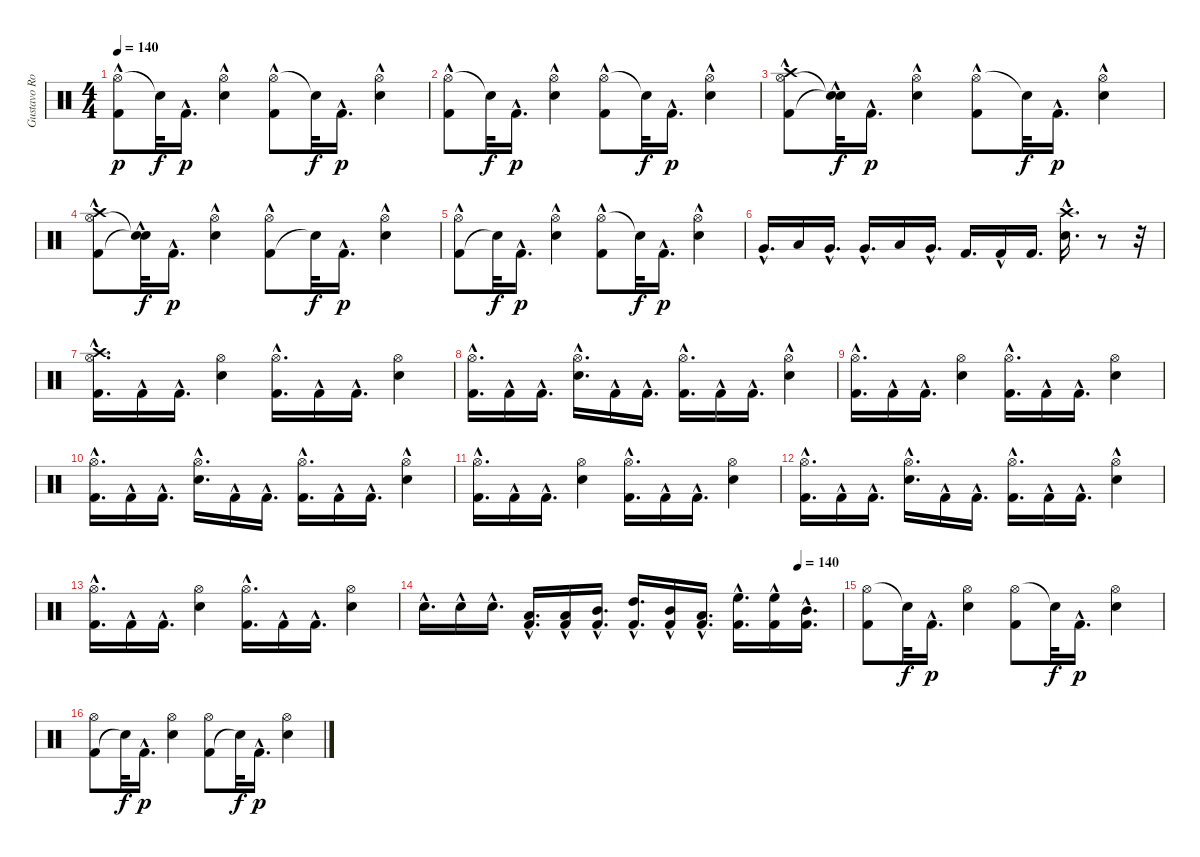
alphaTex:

\track ("Gustavo Rowek" "Gustavo Ro") {instrument percussion}
\staff {score}
\articulation defaults
\ts (4 4)
\tempo 140
\clef neutral
\ks c
("Hi-Hat (open)" "Kick (hit) 2"{hac}).8{dy p} "Snare (hit)"{t}.32{dy f} "Kick (hit) 2"{hac}.16{d dy p} ("Snare (hit) 2"{hac} "Hi-Hat (open)").4 ("Hi-Hat (open)" "Kick (hit) 2"{hac}).8 "Snare (hit)"{t}.32{dy f} "Kick (hit) 2"{hac}.16{d dy p} ("Snare (hit) 2"{hac} "Hi-Hat (open)").4 |
("Hi-Hat (open)" "Kick (hit) 2"{hac}).8 "Snare (hit)"{t}.32{dy f} "Kick (hit) 2"{hac}.16{d dy p} ("Snare (hit) 2"{hac} "Hi-Hat (open)").4 ("Hi-Hat (open)" "Kick (hit) 2"{hac}).8 "Snare (hit)"{t}.32{dy f} "Kick (hit) 2"{hac}.16{d dy p} ("Snare (hit) 2"{hac} "Hi-Hat (open)").4 |
("Hi-Hat (open)" "Kick (hit) 2"{hac} "Crash high (hit)").8 ("Snare (hit)"{t} "Snare (hit)"{hac t}).32{dy f} "Kick (hit) 2"{hac}.16{d dy p} ("Hi-Hat (open)" "Snare (hit) 2"{hac}).4 ("Hi-Hat (open)" "Kick (hit) 2"{hac}).8 "Snare (hit)"{t}.32{dy f} "Kick (hit) 2"{hac}.16{d dy p} ("Hi-Hat (open)" "Snare (hit) 2"{hac}).4 |
("Kick (hit) 2"{hac} "Hi-Hat (open)" "Crash high (hit)").8 ("Snare (hit)"{t} "Snare (hit)"{hac t}).32{dy f} "Kick (hit) 2"{hac}.16{d dy p} ("Hi-Hat (open)" "Snare (hit) 2"{hac}).4 ("Kick (hit) 2"{hac} "Hi-Hat (open)").8 "Snare (hit)"{t}.32{dy f} "Kick (hit) 2"{hac}.16{d dy p} ("Snare (hit) 2"{hac} "Hi-Hat (open)").4 |
("Kick (hit) 2"{hac} "Hi-Hat (open)").8 "Snare (hit)"{t}.32{dy f} "Kick (hit) 2"{hac}.16{d dy p} ("Snare (hit) 2"{hac} "Hi-Hat (open)").4 ("Hi-Hat (open)" "Kick (hit) 2"{hac}).8 "Snare (hit)"{t}.32{dy f} "Kick (hit) 2"{hac}.16{d dy p} ("Hi-Hat (open)" "Snare (hit) 2"{hac}).4 |
"Very Low Tom (hit)"{hac}.16{d} "Low Tom (hit)".16 "Very Low Tom (hit)"{hac}.16{d} "Very Low Tom (hit)"{hac}.16{d} "Low Tom (hit)".16 "Very Low Tom (hit)"{hac}.16{d} "Kick (hit) 2".16{d} "Kick (hit) 2"{hac}.16 "Kick (hit) 2".16{d} ("Crash high (hit)"{hac} "Snare (hit) 2"{hac}).16{d} r.8 r.32 |
("Hi-Hat (open)" "Crash high (hit)" "Kick (hit) 2"{hac}).16{d} "Kick (hit) 2"{hac}.16 "Kick (hit) 2"{hac}.16{d} ("Hi-Hat (open)" "Snare (hit) 2").4 ("Hi-Hat (open)" "Kick (hit) 2"{hac}).16{d} "Kick (hit) 2"{hac}.16 "Kick (hit) 2"{hac}.16{d} ("Snare (hit) 2" "Hi-Hat (open)").4 |
("Hi-Hat (open)" "Kick (hit) 2"{hac}).16{d} "Kick (hit) 2"{hac}.16 "Kick (hit) 2"{hac}.16{d} ("Snare (hit) 2"{hac} "Hi-Hat (open)").16{d} "Kick (hit) 2"{hac}.16 "Kick (hit) 2"{hac}.16{d} ("Kick (hit) 2"{hac} "Hi-Hat (open)").16{d} "Kick (hit) 2"{hac}.16 "Kick (hit) 2"{hac}.16{d} ("Electric Snare (hit)"{hac} "Hi-Hat (open)").4 |
("Kick (hit) 2"{hac} "Hi-Hat (open)").16{d} "Kick (hit) 2"{hac}.16 "Kick (hit) 2"{hac}.16{d} ("Snare (hit) 2" "Hi-Hat (open)").4 ("Hi-Hat (open)" "Kick (hit) 2"{hac}).16{d} "Kick (hit) 2"{hac}.16 "Kick (hit) 2"{hac}.16{d} ("Hi-Hat (open)" "Snare (hit) 2").4 |
("Hi-Hat (open)" "Kick (hit) 2"{hac}).16{d} "Kick (hit) 2"{hac}.16 "Kick (hit) 2"{hac}.16{d} ("Hi-Hat (open)" "Snare (hit) 2"{hac}).16{d} "Kick (hit) 2"{hac}.16 "Kick (hit) 2"{hac}.16{d} ("Hi-Hat (open)" "Kick (hit) 2"{hac}).16{d} "Kick (hit) 2"{hac}.16 "Kick (hit) 2"{hac}.16{d} ("Hi-Hat (open)" "Electric Snare (hit)"{hac}).4 |
("Hi-Hat (open)" "Kick (hit) 2"{hac}).16{d} "Kick (hit) 2"{hac}.16 "Kick (hit) 2"{hac}.16{d} ("Snare (hit) 2" "Hi-Hat (open)").4 ("Hi-Hat (open)" "Kick (hit) 2"{hac}).16{d} "Kick (hit) 2"{hac}.16 "Kick (hit) 2"{hac}.16{d} ("Snare (hit) 2" "Hi-Hat (open)").4 |
("Hi-Hat (open)" "Kick (hit) 2"{hac}).16{d} "Kick (hit) 2"{hac}.16 "Kick (hit) 2"{hac}.16{d} ("Snare (hit) 2"{hac} "Hi-Hat (open)").16{d} "Kick (hit) 2"{hac}.16 "Kick (hit) 2"{hac}.16{d} ("Kick (hit) 2"{hac} "Hi-Hat (open)").16{d} "Kick (hit) 2"{hac}.16 "Kick (hit) 2"{hac}.16{d} ("Electric Snare (hit)"{hac} "Hi-Hat (open)").4 |
("Kick (hit) 2"{hac} "Hi-Hat (open)").16{d} "Kick (hit) 2"{hac}.16 "Kick (hit) 2"{hac}.16{d} ("Hi-Hat (open)" "Snare (hit) 2").4 ("Hi-Hat (open)" "Kick (hit) 2"{hac}).16{d} "Kick (hit) 2"{hac}.16 "Kick (hit) 2"{hac}.16{d} ("Snare (hit) 2" "Hi-Hat (open)").4 |
\tempo (140 0.8958333333333334)
"Snare (hit) 2"{hac}.16{d} "Snare (hit) 2"{hac}.16 "Snare (hit) 2"{hac}.16{d} ("Kick (hit) 2"{hac} "Low Tom (hit)"{hac}).16{d} ("Low Tom (hit)"{hac} "Kick (hit) 2"{hac}).16 ("Kick (hit) 2"{hac} "Mid Tom (hit)"{hac}).16{d} ("Kick (hit) 2"{hac} "High Tom (hit)"{hac}).16{d} ("Mid Tom (hit)"{hac} "Kick (hit) 2"{hac}).16 ("Kick (hit) 2"{hac} "Low Tom (hit)"{hac}).16{d} ("High Floor Tom (hit)"{hac} "Kick (hit) 2"{hac}).16{d} ("Kick (hit) 2"{hac} "High Floor Tom (hit)"{hac}).16 ("Kick (hit) 2"{hac} "Mid Tom (hit)"{hac}).16{d} |
("Hi-Hat (open)" "Kick (hit) 2").8 "Snare (hit)"{t}.32{dy f} "Kick (hit) 2"{hac}.16{d dy p} ("Hi-Hat (open)" "Snare (hit) 2").4 ("Hi-Hat (open)" "Kick (hit) 2").8 "Snare (hit)"{t}.32{dy f} "Kick (hit) 2"{hac}.16{d dy p} ("Hi-Hat (open)" "Snare (hit) 2").4 |
("Kick (hit) 2" "Hi-Hat (open)").8 "Snare (hit)"{t}.32{dy f} "Kick (hit) 2"{hac}.16{d dy p} ("Snare (hit) 2" "Hi-Hat (open)").4 ("Kick (hit) 2" "Hi-Hat (open)").8 "Snare (hit)"{t}.32{dy f} "Kick (hit) 2"{hac}.16{d dy p} ("Snare (hit) 2" "Hi-Hat (open)").4
